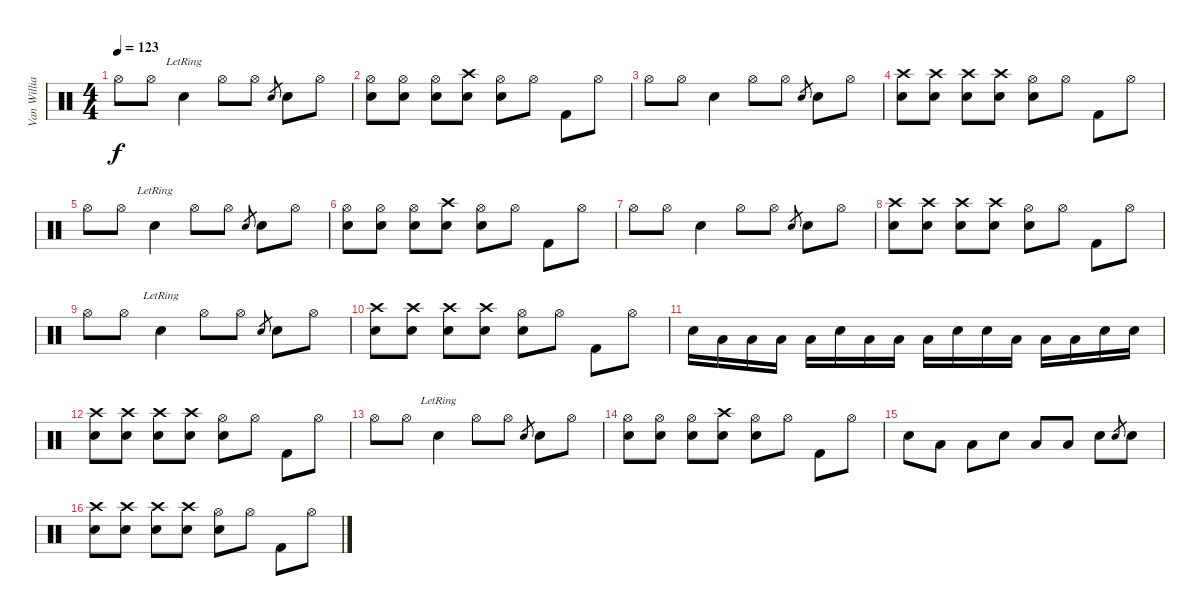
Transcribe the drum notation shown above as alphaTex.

\track ("Van Williams" "Van Willia") {instrument percussion}
\staff {score}
\articulation defaults
\ts (4 4)
\tempo 123
\clef neutral
\ks c "Hi-Hat (open)".8{dy f} "Hi-Hat (open)".8 "Electric Snare (hit)"{lr}.4 "Hi-Hat (open)".8 "Hi-Hat (open)".8 "Electric Snare (hit)".8{gr} "Electric Snare (hit)".8 "Hi-Hat (open)".8
|
("Hi-Hat (open)" "Electric Snare (hit)").8 ("Hi-Hat (open)" "Electric Snare (hit)").8 ("Hi-Hat (open)" "Electric Snare (hit)").8 ("Crash high (hit)" "Electric Snare (hit)").8 ("Hi-Hat (open)" "Electric Snare (hit)").8 "Hi-Hat (open)".8 "Kick (hit) 2".8 "Hi-Hat (open)".8 |
"Hi-Hat (open)".8 "Hi-Hat (open)".8 "Electric Snare (hit)".4 "Hi-Hat (open)".8 "Hi-Hat (open)".8 "Electric Snare (hit)".8{gr} "Electric Snare (hit)".8 "Hi-Hat (open)".8 |
("Crash high (hit)" "Electric Snare (hit)").8 ("Crash high (hit)" "Electric Snare (hit)").8 ("Crash high (hit)" "Electric Snare (hit)").8 ("Crash high (hit)" "Electric Snare (hit)").8 ("Hi-Hat (open)" "Electric Snare (hit)").8 "Hi-Hat (open)".8 "Kick (hit) 2".8 "Hi-Hat (open)".8 |
"Hi-Hat (open)".8 "Hi-Hat (open)".8 "Electric Snare (hit)"{lr}.4 "Hi-Hat (open)".8 "Hi-Hat (open)".8 "Electric Snare (hit)".8{gr} "Electric Snare (hit)".8 "Hi-Hat (open)".8 |
("Hi-Hat (open)" "Electric Snare (hit)").8 ("Hi-Hat (open)" "Electric Snare (hit)").8 ("Hi-Hat (open)" "Electric Snare (hit)").8 ("Crash high (hit)" "Electric Snare (hit)").8 ("Hi-Hat (open)" "Electric Snare (hit)").8 "Hi-Hat (open)".8 "Kick (hit) 2".8 "Hi-Hat (open)".8 |
"Hi-Hat (open)".8 "Hi-Hat (open)".8 "Electric Snare (hit)".4 "Hi-Hat (open)".8 "Hi-Hat (open)".8 "Electric Snare (hit)".8{gr} "Electric Snare (hit)".8 "Hi-Hat (open)".8 |
("Crash high (hit)" "Electric Snare (hit)").8 ("Crash high (hit)" "Electric Snare (hit)").8 ("Crash high (hit)" "Electric Snare (hit)").8 ("Crash high (hit)" "Electric Snare (hit)").8 ("Hi-Hat (open)" "Electric Snare (hit)").8 "Hi-Hat (open)".8 "Kick (hit) 2".8 "Hi-Hat (open)".8 |
"Hi-Hat (open)".8 "Hi-Hat (open)".8 "Electric Snare (hit)"{lr}.4 "Hi-Hat (open)".8 "Hi-Hat (open)".8 "Electric Snare (hit)".8{gr} "Electric Snare (hit)".8 "Hi-Hat (open)".8 |
("Crash high (hit)" "Electric Snare (hit)").8 ("Crash high (hit)" "Electric Snare (hit)").8 ("Crash high (hit)" "Electric Snare (hit)").8 ("Crash high (hit)" "Electric Snare (hit)").8 ("Hi-Hat (open)" "Electric Snare (hit)").8 "Hi-Hat (open)".8 "Kick (hit) 2".8 "Hi-Hat (open)".8 |
"Electric Snare (hit)".16 "Low Floor Tom (hit)".16 "Low Floor Tom (hit)".16 "Low Floor Tom (hit)".16 "Low Floor Tom (hit)".16 "Electric Snare (hit)".16 "Low Floor Tom (hit)".16 "Low Floor Tom (hit)".16 "Low Floor Tom (hit)".16 "Snare (hit)".16 "Electric Snare (hit)".16 "Low Floor Tom (hit)".16 "Low Floor Tom (hit)".16 "Low Floor Tom (hit)".16 "Snare (hit)".16 "Electric Snare (hit)".16 |
("Crash high (hit)" "Electric Snare (hit)").8 ("Crash high (hit)" "Electric Snare (hit)").8 ("Crash high (hit)" "Electric Snare (hit)").8 ("Crash high (hit)" "Electric Snare (hit)").8 ("Hi-Hat (open)" "Electric Snare (hit)").8 "Hi-Hat (open)".8 "Kick (hit) 2".8 "Hi-Hat (open)".8 |
"Hi-Hat (open)".8 "Hi-Hat (open)".8 "Electric Snare (hit)"{lr}.4 "Hi-Hat (open)".8 "Hi-Hat (open)".8 "Electric Snare (hit)".8{gr} "Electric Snare (hit)".8 "Hi-Hat (open)".8 |
("Hi-Hat (open)" "Electric Snare (hit)").8 ("Hi-Hat (open)" "Electric Snare (hit)").8 ("Hi-Hat (open)" "Electric Snare (hit)").8 ("Crash high (hit)" "Electric Snare (hit)").8 ("Hi-Hat (open)" "Electric Snare (hit)").8 "Hi-Hat (open)".8 "Kick (hit) 2".8 "Hi-Hat (open)".8 |
"Electric Snare (hit)".8 "Low Floor Tom (hit)".8 "Low Floor Tom (hit)".8 "Electric Snare (hit)".8 "Low Floor Tom (hit)".8 "Low Floor Tom (hit)".8 "Electric Snare (hit)".8 "Electric Snare (hit)".8{gr} "Electric Snare (hit)".8 |
("Crash high (hit)" "Electric Snare (hit)").8 ("Crash high (hit)" "Electric Snare (hit)").8 ("Crash high (hit)" "Electric Snare (hit)").8 ("Crash high (hit)" "Electric Snare (hit)").8 ("Hi-Hat (open)" "Electric Snare (hit)").8 "Hi-Hat (open)".8 "Kick (hit) 2".8 "Hi-Hat (open)".8
